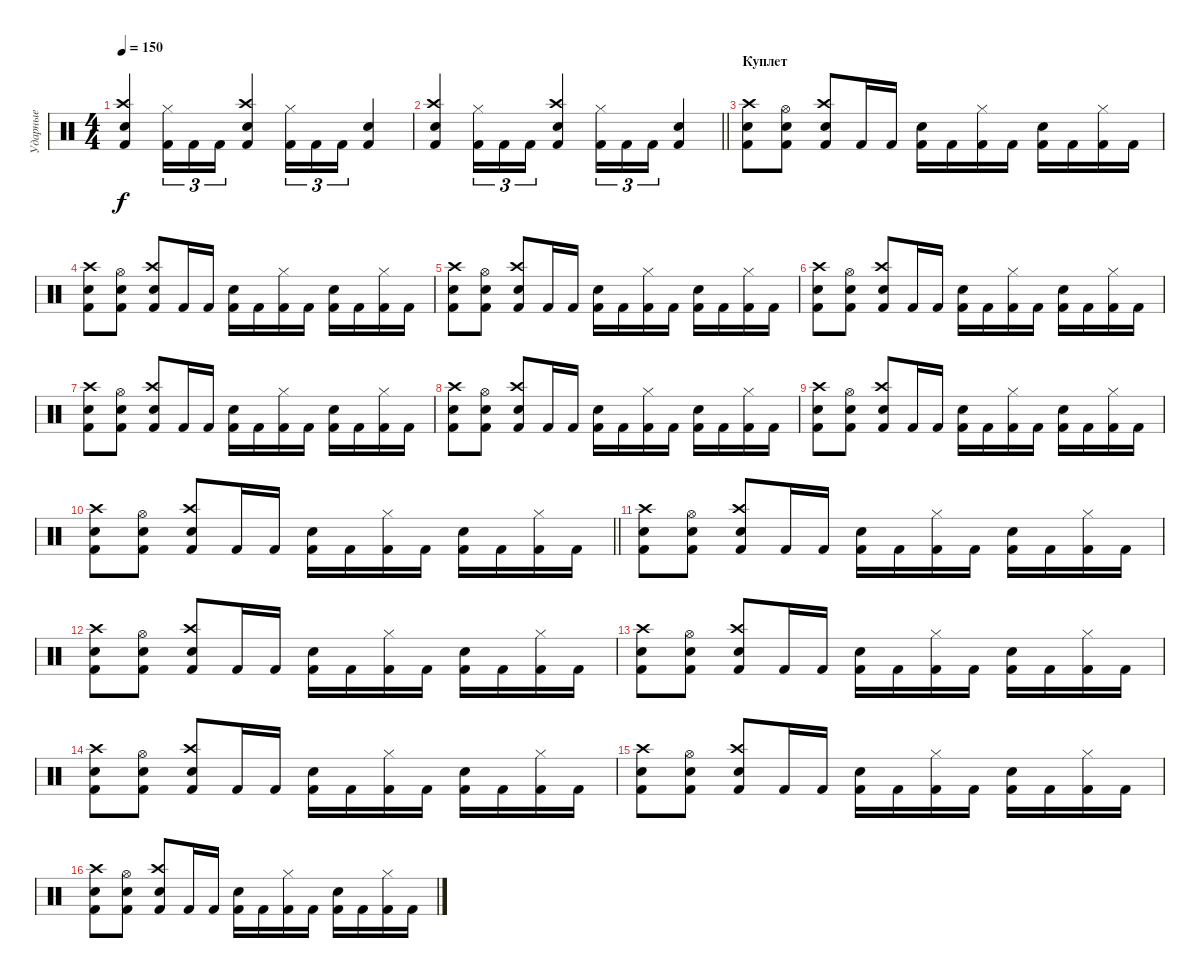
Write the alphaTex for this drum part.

\track ("Ударные" "Ударные") {instrument percussion}
\staff {score}
\articulation defaults
\ts (4 4)
\tempo 150
\clef neutral
\ks c
("Kick (hit) 2" "Crash high (hit)" "Snare (hit) 2").4{dy f} ("Hi-Hat (closed)" "Kick (hit) 2").16{tu (3 2)} "Kick (hit) 2".16{tu (3 2)} "Kick (hit) 2".16{tu (3 2)} ("Crash high (hit)" "Snare (hit) 2" "Kick (hit) 2").4 ("Hi-Hat (closed)" "Kick (hit) 2").16{tu (3 2)} "Kick (hit) 2".16{tu (3 2)} "Kick (hit) 2".16{tu (3 2)} ("Snare (hit) 2" "Kick (hit) 2").4 |
\barLineRight lightlight
("Kick (hit) 2" "Crash high (hit)" "Snare (hit) 2").4 ("Hi-Hat (closed)" "Kick (hit) 2").16{tu (3 2)} "Kick (hit) 2".16{tu (3 2)} "Kick (hit) 2".16{tu (3 2)} ("Crash high (hit)" "Snare (hit) 2" "Kick (hit) 2").4 ("Hi-Hat (closed)" "Kick (hit) 2").16{tu (3 2)} "Kick (hit) 2".16{tu (3 2)} "Kick (hit) 2".16{tu (3 2)} ("Snare (hit) 2" "Kick (hit) 2").4 |
\section ("" "Куплет")
("Snare (hit) 2" "Crash high (hit)" "Kick (hit) 2").8 ("Hi-Hat (open)" "Snare (hit) 2" "Kick (hit) 2").8 ("Kick (hit) 2" "Snare (hit) 2" "Crash high (hit)").8 "Kick (hit) 2".16 "Kick (hit) 2".16 ("Snare (hit) 2" "Kick (hit) 2").16 "Kick (hit) 2".16 ("Hi-Hat (closed)" "Kick (hit) 2").16 "Kick (hit) 2".16 ("Snare (hit) 2" "Kick (hit) 2").16 "Kick (hit) 2".16 ("Hi-Hat (closed)" "Kick (hit) 2").16 "Kick (hit) 2".16 |
("Snare (hit) 2" "Crash high (hit)" "Kick (hit) 2").8 ("Hi-Hat (open)" "Snare (hit) 2" "Kick (hit) 2").8 ("Kick (hit) 2" "Snare (hit) 2" "Crash high (hit)").8 "Kick (hit) 2".16 "Kick (hit) 2".16 ("Snare (hit) 2" "Kick (hit) 2").16 "Kick (hit) 2".16 ("Hi-Hat (closed)" "Kick (hit) 2").16 "Kick (hit) 2".16 ("Snare (hit) 2" "Kick (hit) 2").16 "Kick (hit) 2".16 ("Hi-Hat (closed)" "Kick (hit) 2").16 "Kick (hit) 2".16 |
("Snare (hit) 2" "Crash high (hit)" "Kick (hit) 2").8 ("Hi-Hat (open)" "Snare (hit) 2" "Kick (hit) 2").8 ("Kick (hit) 2" "Snare (hit) 2" "Crash high (hit)").8 "Kick (hit) 2".16 "Kick (hit) 2".16 ("Snare (hit) 2" "Kick (hit) 2").16 "Kick (hit) 2".16 ("Hi-Hat (closed)" "Kick (hit) 2").16 "Kick (hit) 2".16 ("Snare (hit) 2" "Kick (hit) 2").16 "Kick (hit) 2".16 ("Hi-Hat (closed)" "Kick (hit) 2").16 "Kick (hit) 2".16 |
("Snare (hit) 2" "Crash high (hit)" "Kick (hit) 2").8 ("Hi-Hat (open)" "Snare (hit) 2" "Kick (hit) 2").8 ("Kick (hit) 2" "Snare (hit) 2" "Crash high (hit)").8 "Kick (hit) 2".16 "Kick (hit) 2".16 ("Snare (hit) 2" "Kick (hit) 2").16 "Kick (hit) 2".16 ("Hi-Hat (closed)" "Kick (hit) 2").16 "Kick (hit) 2".16 ("Snare (hit) 2" "Kick (hit) 2").16 "Kick (hit) 2".16 ("Hi-Hat (closed)" "Kick (hit) 2").16 "Kick (hit) 2".16 |
("Snare (hit) 2" "Crash high (hit)" "Kick (hit) 2").8 ("Hi-Hat (open)" "Snare (hit) 2" "Kick (hit) 2").8 ("Kick (hit) 2" "Snare (hit) 2" "Crash high (hit)").8 "Kick (hit) 2".16 "Kick (hit) 2".16 ("Snare (hit) 2" "Kick (hit) 2").16 "Kick (hit) 2".16 ("Hi-Hat (closed)" "Kick (hit) 2").16 "Kick (hit) 2".16 ("Snare (hit) 2" "Kick (hit) 2").16 "Kick (hit) 2".16 ("Hi-Hat (closed)" "Kick (hit) 2").16 "Kick (hit) 2".16 |
("Snare (hit) 2" "Crash high (hit)" "Kick (hit) 2").8 ("Hi-Hat (open)" "Snare (hit) 2" "Kick (hit) 2").8 ("Kick (hit) 2" "Snare (hit) 2" "Crash high (hit)").8 "Kick (hit) 2".16 "Kick (hit) 2".16 ("Snare (hit) 2" "Kick (hit) 2").16 "Kick (hit) 2".16 ("Hi-Hat (closed)" "Kick (hit) 2").16 "Kick (hit) 2".16 ("Snare (hit) 2" "Kick (hit) 2").16 "Kick (hit) 2".16 ("Hi-Hat (closed)" "Kick (hit) 2").16 "Kick (hit) 2".16 |
("Snare (hit) 2" "Crash high (hit)" "Kick (hit) 2").8 ("Hi-Hat (open)" "Snare (hit) 2" "Kick (hit) 2").8 ("Kick (hit) 2" "Snare (hit) 2" "Crash high (hit)").8 "Kick (hit) 2".16 "Kick (hit) 2".16 ("Snare (hit) 2" "Kick (hit) 2").16 "Kick (hit) 2".16 ("Hi-Hat (closed)" "Kick (hit) 2").16 "Kick (hit) 2".16 ("Snare (hit) 2" "Kick (hit) 2").16 "Kick (hit) 2".16 ("Hi-Hat (closed)" "Kick (hit) 2").16 "Kick (hit) 2".16 |
\barLineRight lightlight
("Snare (hit) 2" "Crash high (hit)" "Kick (hit) 2").8 ("Hi-Hat (open)" "Snare (hit) 2" "Kick (hit) 2").8 ("Kick (hit) 2" "Snare (hit) 2" "Crash high (hit)").8 "Kick (hit) 2".16 "Kick (hit) 2".16 ("Snare (hit) 2" "Kick (hit) 2").16 "Kick (hit) 2".16 ("Hi-Hat (closed)" "Kick (hit) 2").16 "Kick (hit) 2".16 ("Snare (hit) 2" "Kick (hit) 2").16 "Kick (hit) 2".16 ("Hi-Hat (closed)" "Kick (hit) 2").16 "Kick (hit) 2".16 |
\section ("" " ")
("Snare (hit) 2" "Crash high (hit)" "Kick (hit) 2").8 ("Hi-Hat (open)" "Snare (hit) 2" "Kick (hit) 2").8 ("Kick (hit) 2" "Snare (hit) 2" "Crash high (hit)").8 "Kick (hit) 2".16 "Kick (hit) 2".16 ("Snare (hit) 2" "Kick (hit) 2").16 "Kick (hit) 2".16 ("Hi-Hat (closed)" "Kick (hit) 2").16 "Kick (hit) 2".16 ("Snare (hit) 2" "Kick (hit) 2").16 "Kick (hit) 2".16 ("Hi-Hat (closed)" "Kick (hit) 2").16 "Kick (hit) 2".16 |
("Snare (hit) 2" "Crash high (hit)" "Kick (hit) 2").8 ("Hi-Hat (open)" "Snare (hit) 2" "Kick (hit) 2").8 ("Kick (hit) 2" "Snare (hit) 2" "Crash high (hit)").8 "Kick (hit) 2".16 "Kick (hit) 2".16 ("Snare (hit) 2" "Kick (hit) 2").16 "Kick (hit) 2".16 ("Hi-Hat (closed)" "Kick (hit) 2").16 "Kick (hit) 2".16 ("Snare (hit) 2" "Kick (hit) 2").16 "Kick (hit) 2".16 ("Hi-Hat (closed)" "Kick (hit) 2").16 "Kick (hit) 2".16 |
("Snare (hit) 2" "Crash high (hit)" "Kick (hit) 2").8 ("Hi-Hat (open)" "Snare (hit) 2" "Kick (hit) 2").8 ("Kick (hit) 2" "Snare (hit) 2" "Crash high (hit)").8 "Kick (hit) 2".16 "Kick (hit) 2".16 ("Snare (hit) 2" "Kick (hit) 2").16 "Kick (hit) 2".16 ("Hi-Hat (closed)" "Kick (hit) 2").16 "Kick (hit) 2".16 ("Snare (hit) 2" "Kick (hit) 2").16 "Kick (hit) 2".16 ("Hi-Hat (closed)" "Kick (hit) 2").16 "Kick (hit) 2".16 |
("Snare (hit) 2" "Crash high (hit)" "Kick (hit) 2").8 ("Hi-Hat (open)" "Snare (hit) 2" "Kick (hit) 2").8 ("Kick (hit) 2" "Snare (hit) 2" "Crash high (hit)").8 "Kick (hit) 2".16 "Kick (hit) 2".16 ("Snare (hit) 2" "Kick (hit) 2").16 "Kick (hit) 2".16 ("Hi-Hat (closed)" "Kick (hit) 2").16 "Kick (hit) 2".16 ("Snare (hit) 2" "Kick (hit) 2").16 "Kick (hit) 2".16 ("Hi-Hat (closed)" "Kick (hit) 2").16 "Kick (hit) 2".16 |
("Snare (hit) 2" "Crash high (hit)" "Kick (hit) 2").8 ("Hi-Hat (open)" "Snare (hit) 2" "Kick (hit) 2").8 ("Kick (hit) 2" "Snare (hit) 2" "Crash high (hit)").8 "Kick (hit) 2".16 "Kick (hit) 2".16 ("Snare (hit) 2" "Kick (hit) 2").16 "Kick (hit) 2".16 ("Hi-Hat (closed)" "Kick (hit) 2").16 "Kick (hit) 2".16 ("Snare (hit) 2" "Kick (hit) 2").16 "Kick (hit) 2".16 ("Hi-Hat (closed)" "Kick (hit) 2").16 "Kick (hit) 2".16 |
("Snare (hit) 2" "Crash high (hit)" "Kick (hit) 2").8 ("Hi-Hat (open)" "Snare (hit) 2" "Kick (hit) 2").8 ("Kick (hit) 2" "Snare (hit) 2" "Crash high (hit)").8 "Kick (hit) 2".16 "Kick (hit) 2".16 ("Snare (hit) 2" "Kick (hit) 2").16 "Kick (hit) 2".16 ("Hi-Hat (closed)" "Kick (hit) 2").16 "Kick (hit) 2".16 ("Snare (hit) 2" "Kick (hit) 2").16 "Kick (hit) 2".16 ("Hi-Hat (closed)" "Kick (hit) 2").16 "Kick (hit) 2".16
